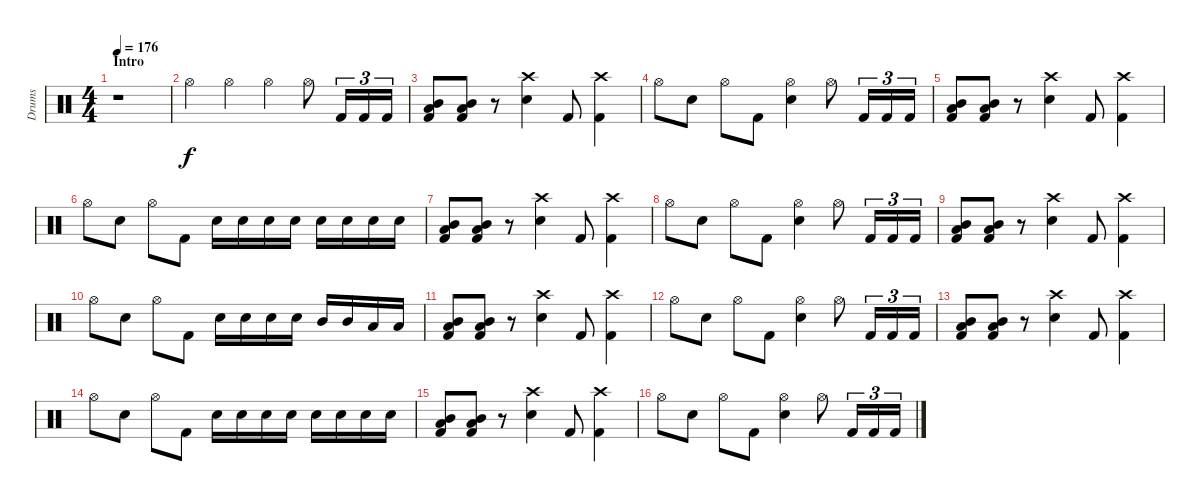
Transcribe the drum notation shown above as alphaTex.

\track ("Drums" "Drums") {instrument percussion}
\staff {score}
\articulation defaults
\ts (4 4)
\section ("" "Intro")
\tempo 176
\tempo 212
\tempo 176
\clef neutral
\ks c
r.1{dy f} |
"Hi-Hat (open)".4 "Hi-Hat (open)".4 "Hi-Hat (open)".4 "Hi-Hat (open)".8 "Kick (hit) 2".16{tu (3 2)} "Kick (hit) 2".16{tu (3 2)} "Kick (hit) 2".16{tu (3 2)} |
("Mid Tom (hit)" "Low Tom (hit)" "Kick (hit) 2").8 ("Mid Tom (hit)" "Low Tom (hit)" "Kick (hit) 2").8 r.8 ("Crash high (hit)" "Electric Snare (hit)").4 "Kick (hit) 2".8 ("Crash high (hit)" "Kick (hit) 2").4 |
"Hi-Hat (open)".8 "Electric Snare (hit)".8 "Hi-Hat (open)".8 "Kick (hit) 2".8 ("Hi-Hat (open)" "Electric Snare (hit)").4 "Hi-Hat (open)".8 "Kick (hit) 2".16{tu (3 2)} "Kick (hit) 2".16{tu (3 2)} "Kick (hit) 2".16{tu (3 2)} |
("Mid Tom (hit)" "Low Tom (hit)" "Kick (hit) 2").8 ("Mid Tom (hit)" "Low Tom (hit)" "Kick (hit) 2").8 r.8 ("Crash high (hit)" "Electric Snare (hit)").4 "Kick (hit) 2".8 ("Crash high (hit)" "Kick (hit) 2").4 |
"Hi-Hat (open)".8 "Electric Snare (hit)".8 "Hi-Hat (open)".8 "Kick (hit) 2".8 "Electric Snare (hit)".16 "Electric Snare (hit)".16 "Electric Snare (hit)".16 "Electric Snare (hit)".16 "Electric Snare (hit)".16 "Electric Snare (hit)".16 "Electric Snare (hit)".16 "Electric Snare (hit)".16 |
("Mid Tom (hit)" "Low Tom (hit)" "Kick (hit) 2").8 ("Mid Tom (hit)" "Low Tom (hit)" "Kick (hit) 2").8 r.8 ("Crash high (hit)" "Electric Snare (hit)").4 "Kick (hit) 2".8 ("Crash high (hit)" "Kick (hit) 2").4 |
"Hi-Hat (open)".8 "Electric Snare (hit)".8 "Hi-Hat (open)".8 "Kick (hit) 2".8 ("Hi-Hat (open)" "Electric Snare (hit)").4 "Hi-Hat (open)".8 "Kick (hit) 2".16{tu (3 2)} "Kick (hit) 2".16{tu (3 2)} "Kick (hit) 2".16{tu (3 2)} |
("Mid Tom (hit)" "Low Tom (hit)" "Kick (hit) 2").8 ("Mid Tom (hit)" "Low Tom (hit)" "Kick (hit) 2").8 r.8 ("Crash high (hit)" "Electric Snare (hit)").4 "Kick (hit) 2".8 ("Crash high (hit)" "Kick (hit) 2").4 |
"Hi-Hat (open)".8 "Electric Snare (hit)".8 "Hi-Hat (open)".8 "Kick (hit) 2".8 "Electric Snare (hit)".16 "Electric Snare (hit)".16 "Electric Snare (hit)".16 "Electric Snare (hit)".16 "Mid Tom (hit)".16 "Mid Tom (hit)".16 "Low Tom (hit)".16 "Low Tom (hit)".16 |
("Mid Tom (hit)" "Low Tom (hit)" "Kick (hit) 2").8 ("Mid Tom (hit)" "Low Tom (hit)" "Kick (hit) 2").8 r.8 ("Crash high (hit)" "Electric Snare (hit)").4 "Kick (hit) 2".8 ("Crash high (hit)" "Kick (hit) 2").4 |
"Hi-Hat (open)".8 "Electric Snare (hit)".8 "Hi-Hat (open)".8 "Kick (hit) 2".8 ("Hi-Hat (open)" "Electric Snare (hit)").4 "Hi-Hat (open)".8 "Kick (hit) 2".16{tu (3 2)} "Kick (hit) 2".16{tu (3 2)} "Kick (hit) 2".16{tu (3 2)} |
("Mid Tom (hit)" "Low Tom (hit)" "Kick (hit) 2").8 ("Mid Tom (hit)" "Low Tom (hit)" "Kick (hit) 2").8 r.8 ("Crash high (hit)" "Electric Snare (hit)").4 "Kick (hit) 2".8 ("Crash high (hit)" "Kick (hit) 2").4 |
"Hi-Hat (open)".8 "Electric Snare (hit)".8 "Hi-Hat (open)".8 "Kick (hit) 2".8 "Electric Snare (hit)".16 "Electric Snare (hit)".16 "Electric Snare (hit)".16 "Electric Snare (hit)".16 "Electric Snare (hit)".16 "Electric Snare (hit)".16 "Electric Snare (hit)".16 "Electric Snare (hit)".16 |
("Mid Tom (hit)" "Low Tom (hit)" "Kick (hit) 2").8 ("Mid Tom (hit)" "Low Tom (hit)" "Kick (hit) 2").8 r.8 ("Crash high (hit)" "Electric Snare (hit)").4 "Kick (hit) 2".8 ("Crash high (hit)" "Kick (hit) 2").4 |
"Hi-Hat (open)".8 "Electric Snare (hit)".8 "Hi-Hat (open)".8 "Kick (hit) 2".8 ("Hi-Hat (open)" "Electric Snare (hit)").4 "Hi-Hat (open)".8 "Kick (hit) 2".16{tu (3 2)} "Kick (hit) 2".16{tu (3 2)} "Kick (hit) 2".16{tu (3 2)}
